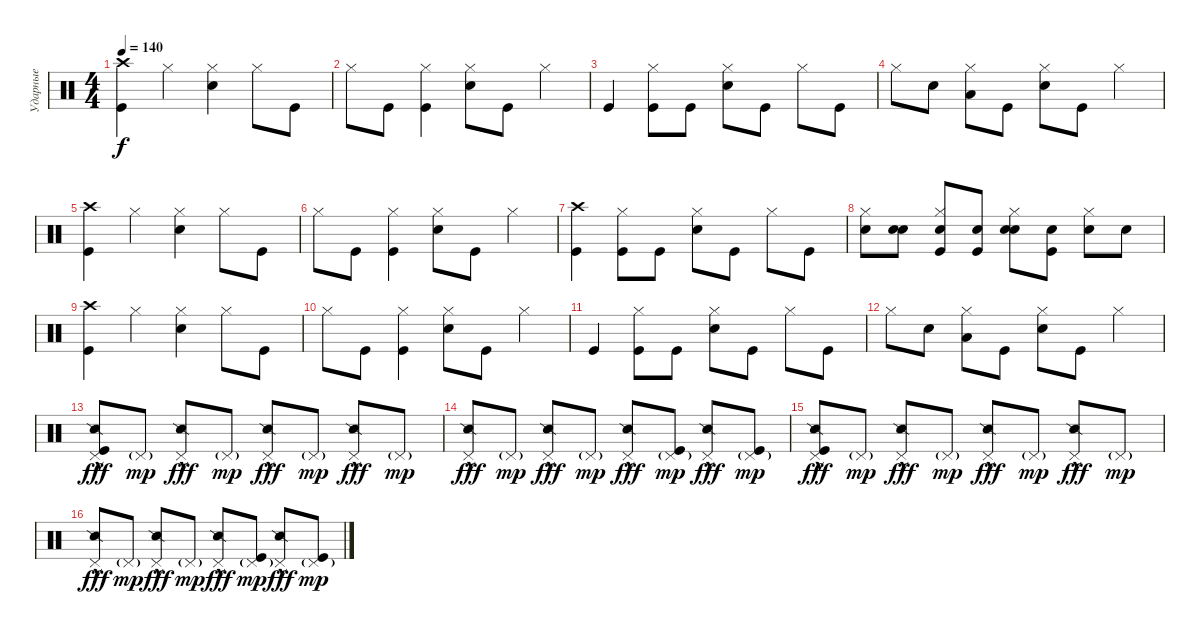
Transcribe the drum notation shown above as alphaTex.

\track ("Ударные" "Ударные") {instrument percussion}
\staff {score}
\articulation defaults
\ts (4 4)
\tempo 140
\clef neutral
\ks c
("Crash high (hit)" "Kick (hit)").4{dy f} "Hi-Hat (closed)".4 ("Hi-Hat (closed)" "Snare (hit) 2").4 "Hi-Hat (closed)".8 "Kick (hit)".8 |
"Hi-Hat (closed)".8 "Kick (hit)".8 ("Hi-Hat (closed)" "Kick (hit)").4 ("Hi-Hat (closed)" "Snare (hit) 2").8 "Kick (hit)".8 "Hi-Hat (closed)".4 |
"Kick (hit)".4 ("Hi-Hat (closed)" "Kick (hit)").8 "Kick (hit)".8 ("Hi-Hat (closed)" "Snare (hit) 2").8 "Kick (hit)".8 "Hi-Hat (closed)".8 "Kick (hit)".8 |
"Hi-Hat (closed)".8 "Snare (hit) 2".8 ("Hi-Hat (closed)" "Low Tom (hit)").8 "Kick (hit)".8 ("Hi-Hat (closed)" "Snare (hit) 2").8 "Kick (hit)".8 "Hi-Hat (closed)".4 |
("Crash high (hit)" "Kick (hit)").4 "Hi-Hat (closed)".4 ("Hi-Hat (closed)" "Snare (hit) 2").4 "Hi-Hat (closed)".8 "Kick (hit)".8 |
"Hi-Hat (closed)".8 "Kick (hit)".8 ("Hi-Hat (closed)" "Kick (hit)").4 ("Hi-Hat (closed)" "Snare (hit) 2").8 "Kick (hit)".8 "Hi-Hat (closed)".4 |
("Crash high (hit)" "Kick (hit)").4 ("Hi-Hat (closed)" "Kick (hit)").8 "Kick (hit)".8 ("Hi-Hat (closed)" "Snare (hit) 2").8 "Kick (hit)".8 "Hi-Hat (closed)".8 "Kick (hit)".8 |
("Hi-Hat (closed)" "Snare (hit)").8 ("Snare (hit) 2" "Snare (hit)").8 ("Hi-Hat (closed)" "Kick (hit)" "Snare (hit)").8 ("Kick (hit)" "Snare (hit)").8 ("Hi-Hat (closed)" "Snare (hit) 2" "Snare (hit)").8 ("Kick (hit)" "Snare (hit)").8 ("Hi-Hat (closed)" "Snare (hit)").8 "Snare (hit)".8 |
("Crash high (hit)" "Kick (hit)").4 "Hi-Hat (closed)".4 ("Hi-Hat (closed)" "Snare (hit) 2").4 "Hi-Hat (closed)".8 "Kick (hit)".8 |
"Hi-Hat (closed)".8 "Kick (hit)".8 ("Hi-Hat (closed)" "Kick (hit)").4 ("Hi-Hat (closed)" "Snare (hit) 2").8 "Kick (hit)".8 "Hi-Hat (closed)".4 |
"Kick (hit)".4 ("Hi-Hat (closed)" "Kick (hit)").8 "Kick (hit)".8 ("Hi-Hat (closed)" "Snare (hit) 2").8 "Kick (hit)".8 "Hi-Hat (closed)".8 "Kick (hit)".8 |
"Hi-Hat (closed)".8 "Snare (hit) 2".8 ("Hi-Hat (closed)" "Low Tom (hit)").8 "Kick (hit)".8 ("Hi-Hat (closed)" "Snare (hit) 2").8 "Kick (hit)".8 "Hi-Hat (closed)".4 |
("Pedal Hi-Hat (hit)"{hac} "Snare (side stick) 2" "Kick (hit)").8{dy fff} "Pedal Hi-Hat (hit)"{g}.8{dy mp} ("Pedal Hi-Hat (hit)"{hac} "Snare (side stick) 2").8{dy fff} "Pedal Hi-Hat (hit)"{g}.8{dy mp} ("Pedal Hi-Hat (hit)"{hac} "Snare (side stick) 2").8{dy fff} "Pedal Hi-Hat (hit)"{g}.8{dy mp} ("Pedal Hi-Hat (hit)"{hac} "Snare (side stick) 2").8{dy fff} "Pedal Hi-Hat (hit)"{g}.8{dy mp} |
("Pedal Hi-Hat (hit)"{hac} "Snare (side stick) 2").8{dy fff} "Pedal Hi-Hat (hit)"{g}.8{dy mp} ("Pedal Hi-Hat (hit)"{hac} "Snare (side stick) 2").8{dy fff} "Pedal Hi-Hat (hit)"{g}.8{dy mp} ("Pedal Hi-Hat (hit)"{hac} "Snare (side stick) 2").8{dy fff} ("Pedal Hi-Hat (hit)"{g} "Kick (hit)").8{dy mp} ("Pedal Hi-Hat (hit)"{hac} "Snare (side stick) 2").8{dy fff} ("Pedal Hi-Hat (hit)"{g} "Kick (hit)").8{dy mp} |
("Pedal Hi-Hat (hit)"{hac} "Snare (side stick) 2" "Kick (hit)").8{dy fff} "Pedal Hi-Hat (hit)"{g}.8{dy mp} ("Pedal Hi-Hat (hit)"{hac} "Snare (side stick) 2").8{dy fff} "Pedal Hi-Hat (hit)"{g}.8{dy mp} ("Pedal Hi-Hat (hit)"{hac} "Snare (side stick) 2").8{dy fff} "Pedal Hi-Hat (hit)"{g}.8{dy mp} ("Pedal Hi-Hat (hit)"{hac} "Snare (side stick) 2").8{dy fff} "Pedal Hi-Hat (hit)"{g}.8{dy mp} |
("Pedal Hi-Hat (hit)"{hac} "Snare (side stick) 2").8{dy fff} "Pedal Hi-Hat (hit)"{g}.8{dy mp} ("Pedal Hi-Hat (hit)"{hac} "Snare (side stick) 2").8{dy fff} "Pedal Hi-Hat (hit)"{g}.8{dy mp} ("Pedal Hi-Hat (hit)"{hac} "Snare (side stick) 2").8{dy fff} ("Pedal Hi-Hat (hit)"{g} "Kick (hit)").8{dy mp} ("Pedal Hi-Hat (hit)"{hac} "Snare (side stick) 2").8{dy fff} ("Pedal Hi-Hat (hit)"{g} "Kick (hit)").8{dy mp}
